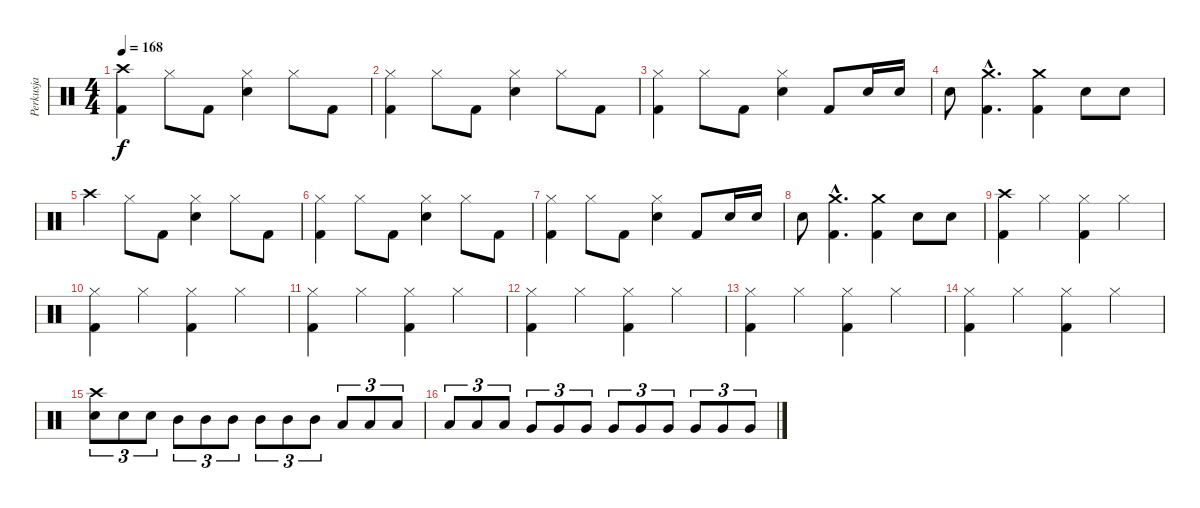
\track ("Perkusja" "Perkusja") {instrument percussion}
\staff {score}
\articulation defaults
\ts (4 4)
\tempo 168
\clef neutral
\ks c
("Crash high (hit)" "Kick (hit) 2").4{dy f} "Hi-Hat (closed)".8 "Kick (hit) 2".8 ("Hi-Hat (closed)" "Snare (hit) 2").4 "Hi-Hat (closed)".8 "Kick (hit) 2".8 |
("Hi-Hat (closed)" "Kick (hit) 2").4 "Hi-Hat (closed)".8 "Kick (hit) 2".8 ("Hi-Hat (closed)" "Snare (hit) 2").4 "Hi-Hat (closed)".8 "Kick (hit) 2".8 |
("Hi-Hat (closed)" "Kick (hit) 2").4 "Hi-Hat (closed)".8 "Kick (hit) 2".8 ("Hi-Hat (closed)" "Snare (hit) 2").4 "Kick (hit) 2".8 "Snare (hit) 2".16 "Snare (hit) 2".16 |
"Snare (hit) 2".8 ("Crash medium (hit)"{hac} "Kick (hit) 2"{hac}).4{d} ("Crash medium (hit)" "Kick (hit) 2").4 "Snare (hit) 2".8 "Snare (hit) 2".8 |
"Crash high (hit)".4 "Hi-Hat (closed)".8 "Kick (hit) 2".8 ("Hi-Hat (closed)" "Snare (hit) 2").4 "Hi-Hat (closed)".8 "Kick (hit) 2".8 |
("Hi-Hat (closed)" "Kick (hit) 2").4 "Hi-Hat (closed)".8 "Kick (hit) 2".8 ("Hi-Hat (closed)" "Snare (hit) 2").4 "Hi-Hat (closed)".8 "Kick (hit) 2".8 |
("Hi-Hat (closed)" "Kick (hit) 2").4 "Hi-Hat (closed)".8 "Kick (hit) 2".8 ("Hi-Hat (closed)" "Snare (hit) 2").4 "Kick (hit) 2".8 "Snare (hit) 2".16 "Snare (hit) 2".16 |
"Snare (hit) 2".8 ("Crash medium (hit)"{hac} "Kick (hit) 2"{hac}).4{d} ("Crash medium (hit)" "Kick (hit) 2").4 "Snare (hit) 2".8 "Snare (hit) 2".8 |
("Crash high (hit)" "Kick (hit) 2").4 "Hi-Hat (closed)".4 ("Hi-Hat (closed)" "Kick (hit) 2").4 "Hi-Hat (closed)".4 |
("Hi-Hat (closed)" "Kick (hit) 2").4 "Hi-Hat (closed)".4 ("Hi-Hat (closed)" "Kick (hit) 2").4 "Hi-Hat (closed)".4 |
("Hi-Hat (closed)" "Kick (hit) 2").4 "Hi-Hat (closed)".4 ("Hi-Hat (closed)" "Kick (hit) 2").4 "Hi-Hat (closed)".4 |
("Hi-Hat (closed)" "Kick (hit) 2").4 "Hi-Hat (closed)".4 ("Hi-Hat (closed)" "Kick (hit) 2").4 "Hi-Hat (closed)".4 |
("Hi-Hat (closed)" "Kick (hit) 2").4 "Hi-Hat (closed)".4 ("Hi-Hat (closed)" "Kick (hit) 2").4 "Hi-Hat (closed)".4 |
("Hi-Hat (closed)" "Kick (hit) 2").4 "Hi-Hat (closed)".4 ("Hi-Hat (closed)" "Kick (hit) 2").4 "Hi-Hat (closed)".4 |
("Crash high (hit)" "Snare (hit) 2").8{tu (3 2)} "Snare (hit) 2".8{tu (3 2)} "Snare (hit) 2".8{tu (3 2)} "Mid Tom (hit)".8{tu (3 2)} "Mid Tom (hit)".8{tu (3 2)} "Mid Tom (hit)".8{tu (3 2)} "Mid Tom (hit)".8{tu (3 2)} "Mid Tom (hit)".8{tu (3 2)} "Mid Tom (hit)".8{tu (3 2)} "Low Tom (hit)".8{tu (3 2)} "Low Tom (hit)".8{tu (3 2)} "Low Tom (hit)".8{tu (3 2)} |
"Low Tom (hit)".8{tu (3 2)} "Low Tom (hit)".8{tu (3 2)} "Low Tom (hit)".8{tu (3 2)} "Very Low Tom (hit)".8{tu (3 2)} "Very Low Tom (hit)".8{tu (3 2)} "Very Low Tom (hit)".8{tu (3 2)} "Very Low Tom (hit)".8{tu (3 2)} "Very Low Tom (hit)".8{tu (3 2)} "Very Low Tom (hit)".8{tu (3 2)} "Very Low Tom (hit)".8{tu (3 2)} "Very Low Tom (hit)".8{tu (3 2)} "Very Low Tom (hit)".8{tu (3 2)}
